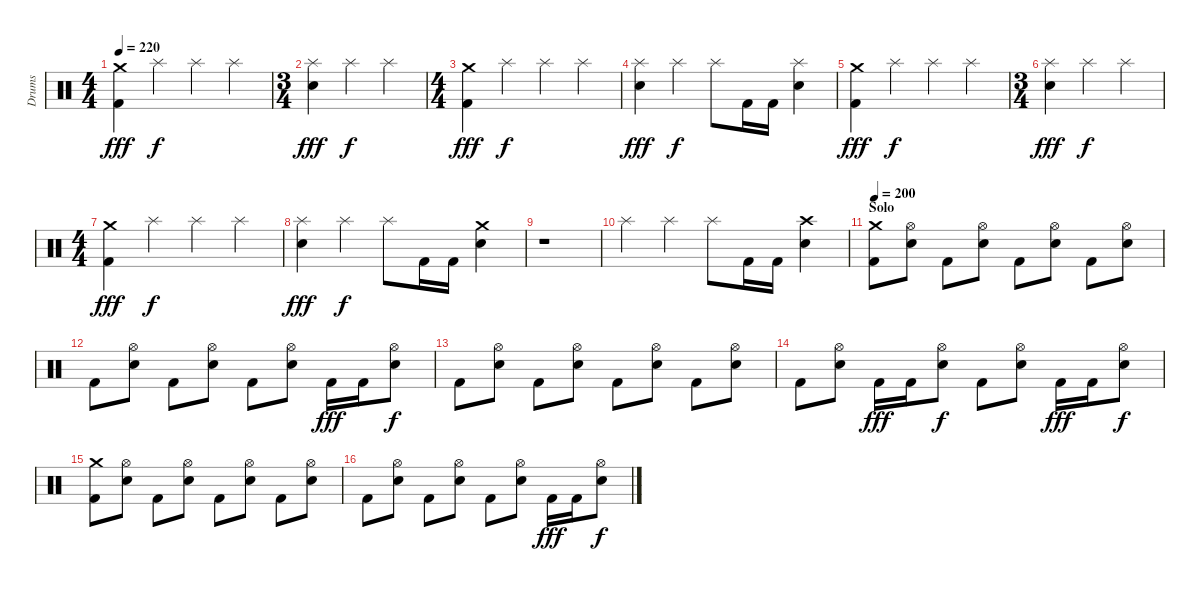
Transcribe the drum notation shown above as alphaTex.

\track ("Drums" "Drums") {instrument percussion}
\staff {score}
\articulation defaults
\ts (4 4)
\tempo 220
\clef neutral
\ks c
("Crash medium (hit)" "Kick (hit) 2").4{dy fff} "Splash (hit)".4{dy f} "Splash (hit)".4 "Splash (hit)".4 |
\ts (3 4)
("Splash (hit)" "Snare (hit) 2").4{dy fff} "Splash (hit)".4{dy f} "Splash (hit)".4 |
\ts (4 4)
("Crash medium (hit)" "Kick (hit) 2").4{dy fff} "Splash (hit)".4{dy f} "Splash (hit)".4 "Splash (hit)".4 |
("Splash (hit)" "Snare (hit) 2").4{dy fff} "Splash (hit)".4{dy f} "Splash (hit)".8 "Kick (hit) 2".16 "Kick (hit) 2".16 ("Splash (hit)" "Snare (hit) 2").4 |
("Crash medium (hit)" "Kick (hit) 2").4{dy fff} "Splash (hit)".4{dy f} "Splash (hit)".4 "Splash (hit)".4 |
\ts (3 4)
("Splash (hit)" "Snare (hit) 2").4{dy fff} "Splash (hit)".4{dy f} "Splash (hit)".4 |
\ts (4 4)
("Crash medium (hit)" "Kick (hit) 2").4{dy fff} "Splash (hit)".4{dy f} "Splash (hit)".4 "Splash (hit)".4 |
("Splash (hit)" "Snare (hit) 2").4{dy fff} "Splash (hit)".4{dy f} "Splash (hit)".8 "Kick (hit) 2".16 "Kick (hit) 2".16 ("Crash medium (hit)" "Snare (hit) 2").4 |
r.1 |
"Splash (hit)".4 "Splash (hit)".4 "Splash (hit)".8 "Kick (hit) 2".16 "Kick (hit) 2".16 ("Crash high (hit)" "Snare (hit) 2").4 |
\section ("" "Solo")
\tempo 200
("Crash medium (hit)" "Kick (hit) 2").8 ("Hi-Hat (open)" "Snare (hit) 2").8 "Kick (hit) 2".8 ("Hi-Hat (open)" "Snare (hit) 2").8 "Kick (hit) 2".8 ("Hi-Hat (open)" "Snare (hit) 2").8 "Kick (hit) 2".8 ("Hi-Hat (open)" "Snare (hit) 2").8 |
"Kick (hit) 2".8 ("Hi-Hat (open)" "Snare (hit) 2").8 "Kick (hit) 2".8 ("Hi-Hat (open)" "Snare (hit) 2").8 "Kick (hit) 2".8 ("Hi-Hat (open)" "Snare (hit) 2").8 "Kick (hit) 2".16{dy fff} "Kick (hit) 2".16 ("Hi-Hat (open)" "Snare (hit) 2").8{dy f} |
"Kick (hit) 2".8 ("Hi-Hat (open)" "Snare (hit) 2").8 "Kick (hit) 2".8 ("Hi-Hat (open)" "Snare (hit) 2").8 "Kick (hit) 2".8 ("Hi-Hat (open)" "Snare (hit) 2").8 "Kick (hit) 2".8 ("Hi-Hat (open)" "Snare (hit) 2").8 |
"Kick (hit) 2".8 ("Hi-Hat (open)" "Snare (hit) 2").8 "Kick (hit) 2".16{dy fff} "Kick (hit) 2".16 ("Hi-Hat (open)" "Snare (hit) 2").8{dy f} "Kick (hit) 2".8 ("Hi-Hat (open)" "Snare (hit) 2").8 "Kick (hit) 2".16{dy fff} "Kick (hit) 2".16 ("Hi-Hat (open)" "Snare (hit) 2").8{dy f} |
("Crash medium (hit)" "Kick (hit) 2").8 ("Hi-Hat (open)" "Snare (hit) 2").8 "Kick (hit) 2".8 ("Hi-Hat (open)" "Snare (hit) 2").8 "Kick (hit) 2".8 ("Hi-Hat (open)" "Snare (hit) 2").8 "Kick (hit) 2".8 ("Hi-Hat (open)" "Snare (hit) 2").8 |
"Kick (hit) 2".8 ("Hi-Hat (open)" "Snare (hit) 2").8 "Kick (hit) 2".8 ("Hi-Hat (open)" "Snare (hit) 2").8 "Kick (hit) 2".8 ("Hi-Hat (open)" "Snare (hit) 2").8 "Kick (hit) 2".16{dy fff} "Kick (hit) 2".16 ("Hi-Hat (open)" "Snare (hit) 2").8{dy f}
